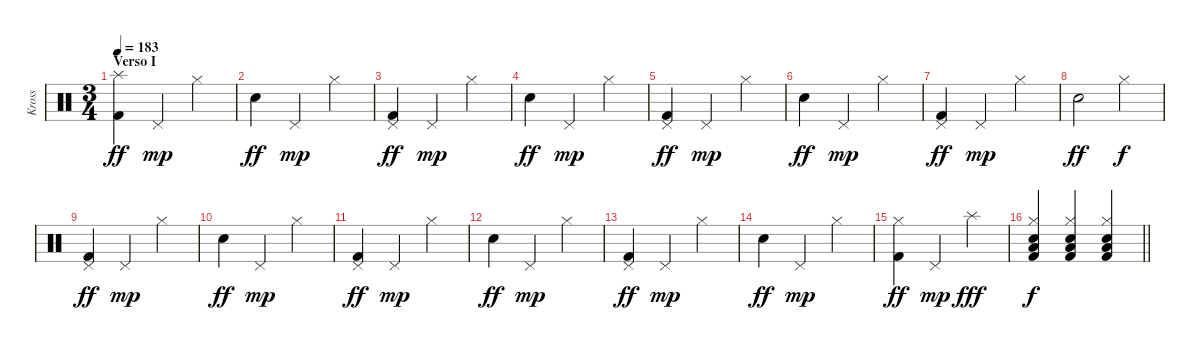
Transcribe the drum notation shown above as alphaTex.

\track ("Kross" "Kross") {instrument percussion}
\staff {score}
\articulation defaults
\ts (3 4)
\section ("" "Verso I")
\tempo 183
\clef neutral
\ks c
("Splash (hit)" "Kick (hit) 2").4{dy ff} "Pedal Hi-Hat (hit)".4{dy mp} "Hi-Hat (closed)".4 |
"Electric Snare (hit)".4{dy ff} "Pedal Hi-Hat (hit)".4{dy mp} "Hi-Hat (closed)".4 |
("Pedal Hi-Hat (hit)" "Kick (hit) 2").4{dy ff} "Pedal Hi-Hat (hit)".4{dy mp} "Hi-Hat (closed)".4 |
"Electric Snare (hit)".4{dy ff} "Pedal Hi-Hat (hit)".4{dy mp} "Hi-Hat (closed)".4 |
("Pedal Hi-Hat (hit)" "Kick (hit) 2").4{dy ff} "Pedal Hi-Hat (hit)".4{dy mp} "Hi-Hat (closed)".4 |
"Electric Snare (hit)".4{dy ff} "Pedal Hi-Hat (hit)".4{dy mp} "Hi-Hat (closed)".4 |
("Pedal Hi-Hat (hit)" "Kick (hit) 2").4{dy ff} "Pedal Hi-Hat (hit)".4{dy mp} "Hi-Hat (closed)".4 |
"Electric Snare (hit)".2{dy ff} "Hi-Hat (closed)".4{dy f} |
("Pedal Hi-Hat (hit)" "Kick (hit) 2").4{dy ff} "Pedal Hi-Hat (hit)".4{dy mp} "Hi-Hat (closed)".4 |
"Electric Snare (hit)".4{dy ff} "Pedal Hi-Hat (hit)".4{dy mp} "Hi-Hat (closed)".4 |
("Pedal Hi-Hat (hit)" "Kick (hit) 2").4{dy ff} "Pedal Hi-Hat (hit)".4{dy mp} "Hi-Hat (closed)".4 |
"Electric Snare (hit)".4{dy ff} "Pedal Hi-Hat (hit)".4{dy mp} "Hi-Hat (closed)".4 |
("Pedal Hi-Hat (hit)" "Kick (hit) 2").4{dy ff} "Pedal Hi-Hat (hit)".4{dy mp} "Hi-Hat (closed)".4 |
"Electric Snare (hit)".4{dy ff} "Pedal Hi-Hat (hit)".4{dy mp} "Hi-Hat (closed)".4 |
("Hi-Hat (closed)" "Kick (hit) 2").4{dy ff} "Pedal Hi-Hat (hit)".4{dy mp} "Splash (hit)".4{dy fff} |
\barLineRight lightlight
("Hi-Hat (closed)" "Low Floor Tom (hit)" "Electric Snare (hit)" "Kick (hit) 2").4{dy f} ("Hi-Hat (closed)" "Low Floor Tom (hit)" "Electric Snare (hit)" "Kick (hit) 2").4 ("Hi-Hat (closed)" "Low Floor Tom (hit)" "Electric Snare (hit)" "Kick (hit) 2").4
